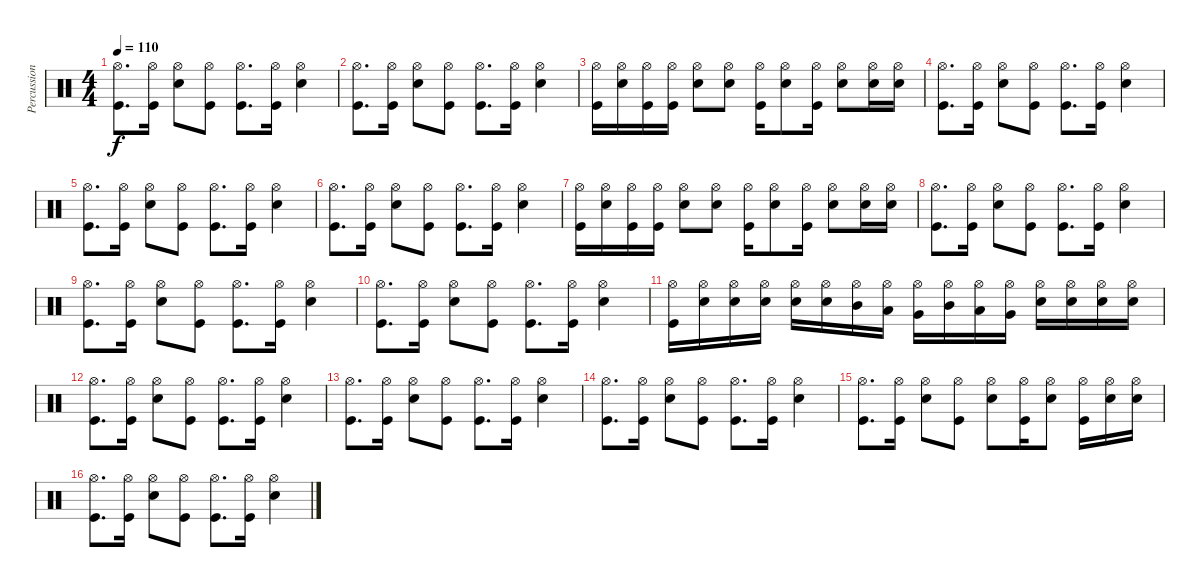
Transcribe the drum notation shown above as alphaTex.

\track ("Percussions" "Percussion") {instrument percussion}
\staff {score}
\articulation defaults
\ts (4 4)
\tempo 110
\clef neutral
\ks c
("Hi-Hat (open)" "Kick (hit)").8{d dy f} ("Hi-Hat (open)" "Kick (hit)").16 ("Hi-Hat (open)" "Snare (hit) 2").8 ("Hi-Hat (open)" "Kick (hit)").8 ("Hi-Hat (open)" "Kick (hit)").8{d} ("Hi-Hat (open)" "Kick (hit)").16 ("Hi-Hat (open)" "Snare (hit) 2").4 |
("Hi-Hat (open)" "Kick (hit)").8{d} ("Hi-Hat (open)" "Kick (hit)").16 ("Hi-Hat (open)" "Snare (hit) 2").8 ("Hi-Hat (open)" "Kick (hit)").8 ("Hi-Hat (open)" "Kick (hit)").8{d} ("Hi-Hat (open)" "Kick (hit)").16 ("Hi-Hat (open)" "Snare (hit) 2").4 |
("Hi-Hat (open)" "Kick (hit)").16 ("Hi-Hat (open)" "Snare (hit) 2").16 ("Hi-Hat (open)" "Kick (hit)").16 ("Hi-Hat (open)" "Kick (hit)").16 ("Hi-Hat (open)" "Snare (hit) 2").8 ("Hi-Hat (open)" "Snare (hit) 2").8 ("Hi-Hat (open)" "Kick (hit)").16 ("Hi-Hat (open)" "Snare (hit) 2").8 ("Hi-Hat (open)" "Kick (hit)").16 ("Hi-Hat (open)" "Snare (hit) 2").8 ("Hi-Hat (open)" "Snare (hit) 2").16 ("Hi-Hat (open)" "Snare (hit) 2").16 |
("Hi-Hat (open)" "Kick (hit)").8{d} ("Hi-Hat (open)" "Kick (hit)").16 ("Hi-Hat (open)" "Snare (hit) 2").8 ("Hi-Hat (open)" "Kick (hit)").8 ("Hi-Hat (open)" "Kick (hit)").8{d} ("Hi-Hat (open)" "Kick (hit)").16 ("Hi-Hat (open)" "Snare (hit) 2").4 |
("Hi-Hat (open)" "Kick (hit)").8{d} ("Hi-Hat (open)" "Kick (hit)").16 ("Hi-Hat (open)" "Snare (hit) 2").8 ("Hi-Hat (open)" "Kick (hit)").8 ("Hi-Hat (open)" "Kick (hit)").8{d} ("Hi-Hat (open)" "Kick (hit)").16 ("Hi-Hat (open)" "Snare (hit) 2").4 |
("Hi-Hat (open)" "Kick (hit)").8{d} ("Hi-Hat (open)" "Kick (hit)").16 ("Hi-Hat (open)" "Snare (hit) 2").8 ("Hi-Hat (open)" "Kick (hit)").8 ("Hi-Hat (open)" "Kick (hit)").8{d} ("Hi-Hat (open)" "Kick (hit)").16 ("Hi-Hat (open)" "Snare (hit) 2").4 |
("Hi-Hat (open)" "Kick (hit)").16 ("Hi-Hat (open)" "Snare (hit) 2").16 ("Hi-Hat (open)" "Kick (hit)").16 ("Hi-Hat (open)" "Kick (hit)").16 ("Hi-Hat (open)" "Snare (hit) 2").8 ("Hi-Hat (open)" "Snare (hit) 2").8 ("Hi-Hat (open)" "Kick (hit)").16 ("Hi-Hat (open)" "Snare (hit) 2").8 ("Hi-Hat (open)" "Kick (hit)").16 ("Hi-Hat (open)" "Snare (hit) 2").8 ("Hi-Hat (open)" "Snare (hit) 2").16 ("Hi-Hat (open)" "Snare (hit) 2").16 |
("Hi-Hat (open)" "Kick (hit)").8{d} ("Hi-Hat (open)" "Kick (hit)").16 ("Hi-Hat (open)" "Snare (hit) 2").8 ("Hi-Hat (open)" "Kick (hit)").8 ("Hi-Hat (open)" "Kick (hit)").8{d} ("Hi-Hat (open)" "Kick (hit)").16 ("Hi-Hat (open)" "Snare (hit) 2").4 |
("Hi-Hat (open)" "Kick (hit)").8{d} ("Hi-Hat (open)" "Kick (hit)").16 ("Hi-Hat (open)" "Snare (hit) 2").8 ("Hi-Hat (open)" "Kick (hit)").8 ("Hi-Hat (open)" "Kick (hit)").8{d} ("Hi-Hat (open)" "Kick (hit)").16 ("Hi-Hat (open)" "Snare (hit) 2").4 |
("Hi-Hat (open)" "Kick (hit)").8{d} ("Hi-Hat (open)" "Kick (hit)").16 ("Hi-Hat (open)" "Snare (hit) 2").8 ("Hi-Hat (open)" "Kick (hit)").8 ("Hi-Hat (open)" "Kick (hit)").8{d} ("Hi-Hat (open)" "Kick (hit)").16 ("Hi-Hat (open)" "Snare (hit) 2").4 |
("Hi-Hat (open)" "Kick (hit)").16 ("Hi-Hat (open)" "Snare (hit) 2").16 ("Hi-Hat (open)" "Snare (hit) 2").16 ("Hi-Hat (open)" "Snare (hit) 2").16 ("Hi-Hat (open)" "Snare (hit) 2").16 ("Hi-Hat (open)" "Snare (hit) 2").16 ("Hi-Hat (open)" "Mid Tom (hit)").16 ("Hi-Hat (open)" "Low Tom (hit)").16 ("Hi-Hat (open)" "Very Low Tom (hit)").16 ("Hi-Hat (open)" "Mid Tom (hit)").16 ("Hi-Hat (open)" "Low Tom (hit)").16 ("Hi-Hat (open)" "Very Low Tom (hit)").16 ("Hi-Hat (open)" "Snare (hit) 2").16 ("Hi-Hat (open)" "Snare (hit) 2").16 ("Hi-Hat (open)" "Snare (hit) 2").16 ("Hi-Hat (open)" "Snare (hit) 2").16 |
("Hi-Hat (open)" "Kick (hit)").8{d} ("Hi-Hat (open)" "Kick (hit)").16 ("Hi-Hat (open)" "Snare (hit) 2").8 ("Hi-Hat (open)" "Kick (hit)").8 ("Hi-Hat (open)" "Kick (hit)").8{d} ("Hi-Hat (open)" "Kick (hit)").16 ("Hi-Hat (open)" "Snare (hit) 2").4 |
("Hi-Hat (open)" "Kick (hit)").8{d} ("Hi-Hat (open)" "Kick (hit)").16 ("Hi-Hat (open)" "Snare (hit) 2").8 ("Hi-Hat (open)" "Kick (hit)").8 ("Hi-Hat (open)" "Kick (hit)").8{d} ("Hi-Hat (open)" "Kick (hit)").16 ("Hi-Hat (open)" "Snare (hit) 2").4 |
("Hi-Hat (open)" "Kick (hit)").8{d} ("Hi-Hat (open)" "Kick (hit)").16 ("Hi-Hat (open)" "Snare (hit) 2").8 ("Hi-Hat (open)" "Kick (hit)").8 ("Hi-Hat (open)" "Kick (hit)").8{d} ("Hi-Hat (open)" "Kick (hit)").16 ("Hi-Hat (open)" "Snare (hit) 2").4 |
("Hi-Hat (open)" "Kick (hit)").8{d} ("Hi-Hat (open)" "Kick (hit)").16 ("Hi-Hat (open)" "Snare (hit) 2").8 ("Hi-Hat (open)" "Kick (hit)").8 ("Hi-Hat (open)" "Snare (hit) 2").8 ("Hi-Hat (open)" "Kick (hit)").16 ("Hi-Hat (open)" "Snare (hit) 2").8 ("Hi-Hat (open)" "Kick (hit)").16 ("Hi-Hat (open)" "Snare (hit) 2").16 ("Hi-Hat (open)" "Snare (hit) 2").16 |
("Hi-Hat (open)" "Kick (hit)").8{d} ("Hi-Hat (open)" "Kick (hit)").16 ("Hi-Hat (open)" "Snare (hit) 2").8 ("Hi-Hat (open)" "Kick (hit)").8 ("Hi-Hat (open)" "Kick (hit)").8{d} ("Hi-Hat (open)" "Kick (hit)").16 ("Hi-Hat (open)" "Snare (hit) 2").4
